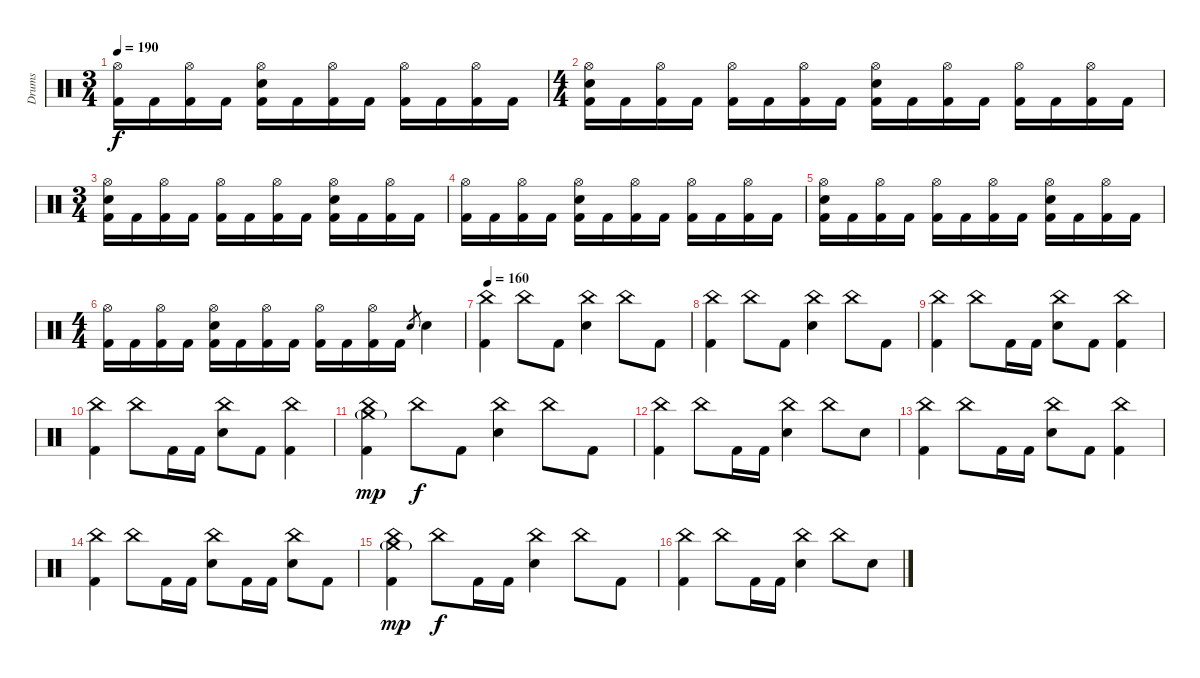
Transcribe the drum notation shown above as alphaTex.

\track ("Drums" "Drums") {instrument percussion}
\staff {score}
\articulation defaults
\ts (3 4)
\tempo 190
\clef neutral
\ks c
("Hi-Hat (open)" "Kick (hit) 2").16{dy f} "Kick (hit) 2".16 ("Hi-Hat (open)" "Kick (hit) 2").16 "Kick (hit) 2".16 ("Hi-Hat (open)" "Electric Snare (hit)" "Kick (hit) 2").16 "Kick (hit) 2".16 ("Hi-Hat (open)" "Kick (hit) 2").16 "Kick (hit) 2".16 ("Hi-Hat (open)" "Kick (hit) 2").16 "Kick (hit) 2".16 ("Hi-Hat (open)" "Kick (hit) 2").16 "Kick (hit) 2".16 |
\ts (4 4)
("Hi-Hat (open)" "Electric Snare (hit)" "Kick (hit) 2").16 "Kick (hit) 2".16 ("Hi-Hat (open)" "Kick (hit) 2").16 "Kick (hit) 2".16 ("Hi-Hat (open)" "Kick (hit) 2").16 "Kick (hit) 2".16 ("Hi-Hat (open)" "Kick (hit) 2").16 "Kick (hit) 2".16 ("Hi-Hat (open)" "Electric Snare (hit)" "Kick (hit) 2").16 "Kick (hit) 2".16 ("Hi-Hat (open)" "Kick (hit) 2").16 "Kick (hit) 2".16 ("Hi-Hat (open)" "Kick (hit) 2").16 "Kick (hit) 2".16 ("Hi-Hat (open)" "Kick (hit) 2").16 "Kick (hit) 2".16 |
\ts (3 4)
("Hi-Hat (open)" "Electric Snare (hit)" "Kick (hit) 2").16 "Kick (hit) 2".16 ("Hi-Hat (open)" "Kick (hit) 2").16 "Kick (hit) 2".16 ("Hi-Hat (open)" "Kick (hit) 2").16 "Kick (hit) 2".16 ("Hi-Hat (open)" "Kick (hit) 2").16 "Kick (hit) 2".16 ("Hi-Hat (open)" "Electric Snare (hit)" "Kick (hit) 2").16 "Kick (hit) 2".16 ("Hi-Hat (open)" "Kick (hit) 2").16 "Kick (hit) 2".16 |
("Hi-Hat (open)" "Kick (hit) 2").16 "Kick (hit) 2".16 ("Hi-Hat (open)" "Kick (hit) 2").16 "Kick (hit) 2".16 ("Hi-Hat (open)" "Electric Snare (hit)" "Kick (hit) 2").16 "Kick (hit) 2".16 ("Hi-Hat (open)" "Kick (hit) 2").16 "Kick (hit) 2".16 ("Hi-Hat (open)" "Kick (hit) 2").16 "Kick (hit) 2".16 ("Hi-Hat (open)" "Kick (hit) 2").16 "Kick (hit) 2".16 |
("Hi-Hat (open)" "Electric Snare (hit)" "Kick (hit) 2").16 "Kick (hit) 2".16 ("Hi-Hat (open)" "Kick (hit) 2").16 "Kick (hit) 2".16 ("Hi-Hat (open)" "Kick (hit) 2").16 "Kick (hit) 2".16 ("Hi-Hat (open)" "Kick (hit) 2").16 "Kick (hit) 2".16 ("Hi-Hat (open)" "Electric Snare (hit)" "Kick (hit) 2").16 "Kick (hit) 2".16 ("Hi-Hat (open)" "Kick (hit) 2").16 "Kick (hit) 2".16 |
\ts (4 4)
("Hi-Hat (open)" "Kick (hit) 2").16 "Kick (hit) 2".16 ("Hi-Hat (open)" "Kick (hit) 2").16 "Kick (hit) 2".16 ("Hi-Hat (open)" "Electric Snare (hit)" "Kick (hit) 2").16 "Kick (hit) 2".16 ("Hi-Hat (open)" "Kick (hit) 2").16 "Kick (hit) 2".16 ("Hi-Hat (open)" "Kick (hit) 2").16 "Kick (hit) 2".16 ("Hi-Hat (open)" "Kick (hit) 2").16 "Kick (hit) 2".16 "Electric Snare (hit)".8{gr} "Electric Snare (hit)".4 |
\tempo 160
("China (hit)" "Kick (hit) 2").4 "China (hit)".8 "Kick (hit) 2".8 ("China (hit)" "Electric Snare (hit)").4 "China (hit)".8 "Kick (hit) 2".8 |
("China (hit)" "Kick (hit) 2").4 "China (hit)".8 "Kick (hit) 2".8 ("China (hit)" "Electric Snare (hit)").4 "China (hit)".8 "Kick (hit) 2".8 |
("China (hit)" "Kick (hit) 2").4 "China (hit)".8 "Kick (hit) 2".16 "Kick (hit) 2".16 ("China (hit)" "Electric Snare (hit)").8 "Kick (hit) 2".8 ("China (hit)" "Kick (hit) 2").4 |
("China (hit)" "Kick (hit) 2").4 "China (hit)".8 "Kick (hit) 2".16 "Kick (hit) 2".16 ("China (hit)" "Electric Snare (hit)").8 "Kick (hit) 2".8 ("China (hit)" "Kick (hit) 2").4 |
("China (hit)" "Crash medium (hit)"{g} "Kick (hit) 2").4{dy mp} "China (hit)".8{dy f} "Kick (hit) 2".8 ("China (hit)" "Electric Snare (hit)").4 "China (hit)".8 "Kick (hit) 2".8 |
("China (hit)" "Kick (hit) 2").4 "China (hit)".8 "Kick (hit) 2".16 "Kick (hit) 2".16 ("China (hit)" "Electric Snare (hit)").4 "China (hit)".8 "Electric Snare (hit)".8 |
("China (hit)" "Kick (hit) 2").4 "China (hit)".8 "Kick (hit) 2".16 "Kick (hit) 2".16 ("China (hit)" "Electric Snare (hit)").8 "Kick (hit) 2".8 ("China (hit)" "Kick (hit) 2").4 |
("China (hit)" "Kick (hit) 2").4 "China (hit)".8 "Kick (hit) 2".16 "Kick (hit) 2".16 ("China (hit)" "Electric Snare (hit)").8 "Kick (hit) 2".16 "Kick (hit) 2".16 ("China (hit)" "Electric Snare (hit)").8 "Kick (hit) 2".8 |
("China (hit)" "Crash medium (hit)"{g} "Kick (hit) 2").4{dy mp} "China (hit)".8{dy f} "Kick (hit) 2".16 "Kick (hit) 2".16 ("China (hit)" "Electric Snare (hit)").4 "China (hit)".8 "Kick (hit) 2".8 |
("China (hit)" "Kick (hit) 2").4 "China (hit)".8 "Kick (hit) 2".16 "Kick (hit) 2".16 ("China (hit)" "Electric Snare (hit)").4 "China (hit)".8 "Electric Snare (hit)".8
